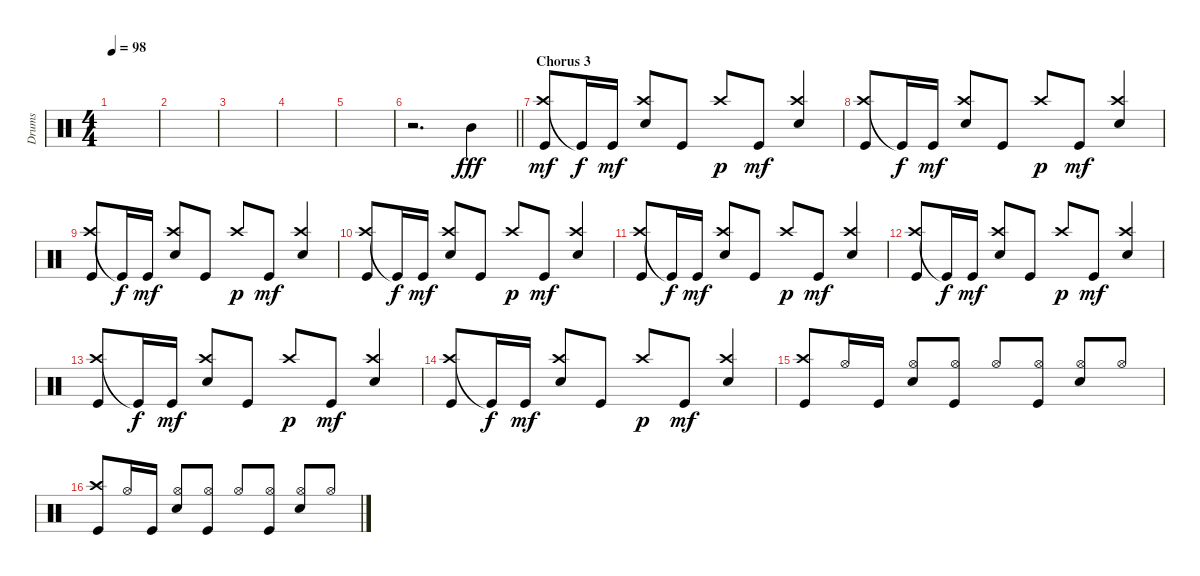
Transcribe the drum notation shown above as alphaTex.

\track ("Drums" "Drums") {instrument percussion}
\staff {score}
\articulation defaults
\ts (4 4)
\tempo 98
\clef neutral
\ks c
|
|
|
|
|
\barLineRight lightlight
r.2{d} "Mid Tom (hit)".4{dy fff} |
\section ("" "Chorus 3")
("Crash high (hit)" "Kick (hit)").8{dy mf beam Up} "Kick (hit)"{t}.16{dy f beam Up} "Kick (hit)".16{dy mf beam Up} ("Crash high (hit)" "Snare (hit) 2").8{beam Up} "Kick (hit)".8{beam Up} "Crash high (hit)".8{dy p beam Up} "Kick (hit)".8{dy mf beam Up} ("Crash high (hit)" "Snare (hit) 2").4{beam Up} |
("Crash high (hit)" "Kick (hit)").8{beam Up} "Kick (hit)"{t}.16{dy f beam Up} "Kick (hit)".16{dy mf beam Up} ("Crash high (hit)" "Snare (hit) 2").8{beam Up} "Kick (hit)".8{beam Up} "Crash high (hit)".8{dy p beam Up} "Kick (hit)".8{dy mf beam Up} ("Crash high (hit)" "Snare (hit) 2").4{beam Up} |
("Crash high (hit)" "Kick (hit)").8{beam Up} "Kick (hit)"{t}.16{dy f beam Up} "Kick (hit)".16{dy mf beam Up} ("Crash high (hit)" "Snare (hit) 2").8{beam Up} "Kick (hit)".8{beam Up} "Crash high (hit)".8{dy p beam Up} "Kick (hit)".8{dy mf beam Up} ("Crash high (hit)" "Snare (hit) 2").4{beam Up} |
("Crash high (hit)" "Kick (hit)").8{beam Up} "Kick (hit)"{t}.16{dy f beam Up} "Kick (hit)".16{dy mf beam Up} ("Crash high (hit)" "Snare (hit) 2").8{beam Up} "Kick (hit)".8{beam Up} "Crash high (hit)".8{dy p beam Up} "Kick (hit)".8{dy mf beam Up} ("Crash high (hit)" "Snare (hit) 2").4{beam Up} |
("Crash high (hit)" "Kick (hit)").8{beam Up} "Kick (hit)"{t}.16{dy f beam Up} "Kick (hit)".16{dy mf beam Up} ("Crash high (hit)" "Snare (hit) 2").8{beam Up} "Kick (hit)".8{beam Up} "Crash high (hit)".8{dy p beam Up} "Kick (hit)".8{dy mf beam Up} ("Crash high (hit)" "Snare (hit) 2").4{beam Up} |
("Crash high (hit)" "Kick (hit)").8{beam Up} "Kick (hit)"{t}.16{dy f beam Up} "Kick (hit)".16{dy mf beam Up} ("Crash high (hit)" "Snare (hit) 2").8{beam Up} "Kick (hit)".8{beam Up} "Crash high (hit)".8{dy p beam Up} "Kick (hit)".8{dy mf beam Up} ("Crash high (hit)" "Snare (hit) 2").4{beam Up} |
("Crash high (hit)" "Kick (hit)").8{beam Up} "Kick (hit)"{t}.16{dy f beam Up} "Kick (hit)".16{dy mf beam Up} ("Crash high (hit)" "Snare (hit) 2").8{beam Up} "Kick (hit)".8{beam Up} "Crash high (hit)".8{dy p beam Up} "Kick (hit)".8{dy mf beam Up} ("Crash high (hit)" "Snare (hit) 2").4{beam Up} |
("Crash high (hit)" "Kick (hit)").8{beam Up} "Kick (hit)"{t}.16{dy f beam Up} "Kick (hit)".16{dy mf beam Up} ("Crash high (hit)" "Snare (hit) 2").8{beam Up} "Kick (hit)".8{beam Up} "Crash high (hit)".8{dy p beam Up} "Kick (hit)".8{dy mf beam Up} ("Crash high (hit)" "Snare (hit) 2").4{beam Up} |
("Crash high (hit)" "Kick (hit)").8{beam Up} "Hi-Hat (open)".16{beam Up} "Kick (hit)".16{beam Up} ("Hi-Hat (open)" "Snare (hit) 2").8{beam Up} ("Hi-Hat (open)" "Kick (hit)").8{beam Up} "Hi-Hat (open)".8{beam Up} ("Hi-Hat (open)" "Kick (hit)").8{beam Up} ("Hi-Hat (open)" "Snare (hit) 2").8{beam Up} "Hi-Hat (open)".8{beam Up} |
("Crash high (hit)" "Kick (hit)").8{beam Up} "Hi-Hat (open)".16{beam Up} "Kick (hit)".16{beam Up} ("Hi-Hat (open)" "Snare (hit) 2").8{beam Up} ("Hi-Hat (open)" "Kick (hit)").8{beam Up} "Hi-Hat (open)".8{beam Up} ("Hi-Hat (open)" "Kick (hit)").8{beam Up} ("Hi-Hat (open)" "Snare (hit) 2").8{beam Up} "Hi-Hat (open)".8{beam Up}
